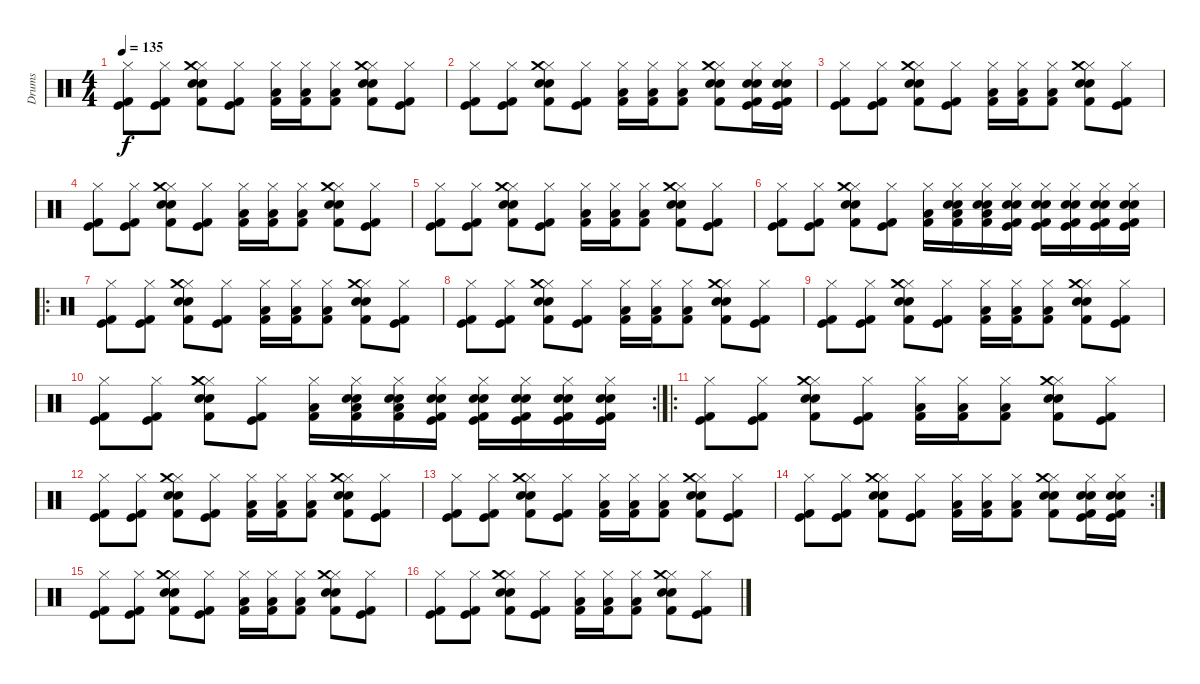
\track ("Drums" "Drums") {instrument percussion}
\staff {score}
\articulation defaults
\ts (4 4)
\tempo 135
\clef neutral
\ks c
("Hi-Hat (closed)" "Kick (hit)" "Kick (hit) 2").8{dy f} ("Hi-Hat (closed)" "Kick (hit)" "Kick (hit) 2").8 ("Hi-Hat (closed)" "Electric Snare (hit)" "Crash medium (hit)" "Snare (hit) 2" "Kick (hit) 2").8 ("Hi-Hat (closed)" "Kick (hit)" "Kick (hit) 2").8 ("Hi-Hat (closed)" "Low Floor Tom (hit)" "Kick (hit) 2").16 ("Hi-Hat (closed)" "Low Floor Tom (hit)" "Kick (hit) 2").16 ("Hi-Hat (closed)" "Low Floor Tom (hit)" "Kick (hit) 2").8 ("Hi-Hat (closed)" "Electric Snare (hit)" "Crash medium (hit)" "Snare (hit) 2" "Kick (hit) 2").8 ("Hi-Hat (closed)" "Kick (hit)" "Kick (hit) 2").8 |
("Hi-Hat (closed)" "Kick (hit)" "Kick (hit) 2").8 ("Hi-Hat (closed)" "Kick (hit)" "Kick (hit) 2").8 ("Hi-Hat (closed)" "Electric Snare (hit)" "Crash medium (hit)" "Snare (hit) 2" "Kick (hit) 2").8 ("Hi-Hat (closed)" "Kick (hit)" "Kick (hit) 2").8 ("Hi-Hat (closed)" "Low Floor Tom (hit)" "Kick (hit) 2").16 ("Hi-Hat (closed)" "Low Floor Tom (hit)" "Kick (hit) 2").16 ("Hi-Hat (closed)" "Low Floor Tom (hit)" "Kick (hit) 2").8 ("Hi-Hat (closed)" "Electric Snare (hit)" "Crash medium (hit)" "Snare (hit) 2" "Kick (hit) 2").8 ("Electric Snare (hit)" "Snare (hit) 2" "Hi-Hat (closed)" "Kick (hit)" "Kick (hit) 2").16 ("Electric Snare (hit)" "Snare (hit) 2" "Hi-Hat (closed)" "Kick (hit)" "Kick (hit) 2").16 |
("Hi-Hat (closed)" "Kick (hit)" "Kick (hit) 2").8 ("Hi-Hat (closed)" "Kick (hit)" "Kick (hit) 2").8 ("Hi-Hat (closed)" "Electric Snare (hit)" "Crash medium (hit)" "Snare (hit) 2" "Kick (hit) 2").8 ("Hi-Hat (closed)" "Kick (hit)" "Kick (hit) 2").8 ("Hi-Hat (closed)" "Low Floor Tom (hit)" "Kick (hit) 2").16 ("Hi-Hat (closed)" "Low Floor Tom (hit)" "Kick (hit) 2").16 ("Hi-Hat (closed)" "Low Floor Tom (hit)" "Kick (hit) 2").8 ("Hi-Hat (closed)" "Electric Snare (hit)" "Crash medium (hit)" "Snare (hit) 2" "Kick (hit) 2").8 ("Hi-Hat (closed)" "Kick (hit)" "Kick (hit) 2").8 |
("Hi-Hat (closed)" "Kick (hit)" "Kick (hit) 2").8 ("Hi-Hat (closed)" "Kick (hit)" "Kick (hit) 2").8 ("Hi-Hat (closed)" "Electric Snare (hit)" "Crash medium (hit)" "Snare (hit) 2" "Kick (hit) 2").8 ("Hi-Hat (closed)" "Kick (hit)" "Kick (hit) 2").8 ("Hi-Hat (closed)" "Low Floor Tom (hit)" "Kick (hit) 2").16 ("Hi-Hat (closed)" "Low Floor Tom (hit)" "Kick (hit) 2").16 ("Hi-Hat (closed)" "Low Floor Tom (hit)" "Kick (hit) 2").8 ("Hi-Hat (closed)" "Electric Snare (hit)" "Crash medium (hit)" "Snare (hit) 2" "Kick (hit) 2").8 ("Hi-Hat (closed)" "Kick (hit)" "Kick (hit) 2").8 |
("Hi-Hat (closed)" "Kick (hit)" "Kick (hit) 2").8 ("Hi-Hat (closed)" "Kick (hit)" "Kick (hit) 2").8 ("Hi-Hat (closed)" "Electric Snare (hit)" "Crash medium (hit)" "Snare (hit) 2" "Kick (hit) 2").8 ("Hi-Hat (closed)" "Kick (hit)" "Kick (hit) 2").8 ("Hi-Hat (closed)" "Low Floor Tom (hit)" "Kick (hit) 2").16 ("Hi-Hat (closed)" "Low Floor Tom (hit)" "Kick (hit) 2").16 ("Hi-Hat (closed)" "Low Floor Tom (hit)" "Kick (hit) 2").8 ("Hi-Hat (closed)" "Electric Snare (hit)" "Crash medium (hit)" "Snare (hit) 2" "Kick (hit) 2").8 ("Hi-Hat (closed)" "Kick (hit)" "Kick (hit) 2").8 |
("Hi-Hat (closed)" "Kick (hit)" "Kick (hit) 2").8 ("Hi-Hat (closed)" "Kick (hit)" "Kick (hit) 2").8 ("Hi-Hat (closed)" "Electric Snare (hit)" "Crash medium (hit)" "Snare (hit) 2" "Kick (hit) 2").8 ("Hi-Hat (closed)" "Kick (hit)" "Kick (hit) 2").8 ("Hi-Hat (closed)" "Low Floor Tom (hit)" "Kick (hit) 2").16 ("Electric Snare (hit)" "Snare (hit) 2" "Hi-Hat (closed)" "Low Floor Tom (hit)" "Kick (hit) 2").16 ("Electric Snare (hit)" "Snare (hit) 2" "Hi-Hat (closed)" "Low Floor Tom (hit)" "Kick (hit) 2").16 ("Electric Snare (hit)" "Snare (hit) 2" "Hi-Hat (closed)" "Kick (hit)" "Kick (hit) 2").16 ("Electric Snare (hit)" "Snare (hit) 2" "Hi-Hat (closed)" "Kick (hit)" "Kick (hit) 2").16 ("Electric Snare (hit)" "Snare (hit) 2" "Hi-Hat (closed)" "Kick (hit)" "Kick (hit) 2").16 ("Electric Snare (hit)" "Snare (hit) 2" "Hi-Hat (closed)" "Kick (hit)" "Kick (hit) 2").16 ("Electric Snare (hit)" "Snare (hit) 2" "Hi-Hat (closed)" "Kick (hit)" "Kick (hit) 2").16 |
\ro
("Hi-Hat (closed)" "Kick (hit)" "Kick (hit) 2").8 ("Hi-Hat (closed)" "Kick (hit)" "Kick (hit) 2").8 ("Hi-Hat (closed)" "Electric Snare (hit)" "Crash medium (hit)" "Snare (hit) 2" "Kick (hit) 2").8 ("Hi-Hat (closed)" "Kick (hit)" "Kick (hit) 2").8 ("Hi-Hat (closed)" "Low Floor Tom (hit)" "Kick (hit) 2").16 ("Hi-Hat (closed)" "Low Floor Tom (hit)" "Kick (hit) 2").16 ("Hi-Hat (closed)" "Low Floor Tom (hit)" "Kick (hit) 2").8 ("Hi-Hat (closed)" "Electric Snare (hit)" "Crash medium (hit)" "Snare (hit) 2" "Kick (hit) 2").8 ("Hi-Hat (closed)" "Kick (hit)" "Kick (hit) 2").8 |
("Hi-Hat (closed)" "Kick (hit)" "Kick (hit) 2").8 ("Hi-Hat (closed)" "Kick (hit)" "Kick (hit) 2").8 ("Hi-Hat (closed)" "Electric Snare (hit)" "Crash medium (hit)" "Snare (hit) 2" "Kick (hit) 2").8 ("Hi-Hat (closed)" "Kick (hit)" "Kick (hit) 2").8 ("Hi-Hat (closed)" "Low Floor Tom (hit)" "Kick (hit) 2").16 ("Hi-Hat (closed)" "Low Floor Tom (hit)" "Kick (hit) 2").16 ("Hi-Hat (closed)" "Low Floor Tom (hit)" "Kick (hit) 2").8 ("Hi-Hat (closed)" "Electric Snare (hit)" "Crash medium (hit)" "Snare (hit) 2" "Kick (hit) 2").8 ("Hi-Hat (closed)" "Kick (hit)" "Kick (hit) 2").8 |
("Hi-Hat (closed)" "Kick (hit)" "Kick (hit) 2").8 ("Hi-Hat (closed)" "Kick (hit)" "Kick (hit) 2").8 ("Hi-Hat (closed)" "Electric Snare (hit)" "Crash medium (hit)" "Snare (hit) 2" "Kick (hit) 2").8 ("Hi-Hat (closed)" "Kick (hit)" "Kick (hit) 2").8 ("Hi-Hat (closed)" "Low Floor Tom (hit)" "Kick (hit) 2").16 ("Hi-Hat (closed)" "Low Floor Tom (hit)" "Kick (hit) 2").16 ("Hi-Hat (closed)" "Low Floor Tom (hit)" "Kick (hit) 2").8 ("Hi-Hat (closed)" "Electric Snare (hit)" "Crash medium (hit)" "Snare (hit) 2" "Kick (hit) 2").8 ("Hi-Hat (closed)" "Kick (hit)" "Kick (hit) 2").8 |
\rc 2
("Hi-Hat (closed)" "Kick (hit)" "Kick (hit) 2").8 ("Hi-Hat (closed)" "Kick (hit)" "Kick (hit) 2").8 ("Hi-Hat (closed)" "Electric Snare (hit)" "Crash medium (hit)" "Snare (hit) 2" "Kick (hit) 2").8 ("Hi-Hat (closed)" "Kick (hit)" "Kick (hit) 2").8 ("Hi-Hat (closed)" "Low Floor Tom (hit)" "Kick (hit) 2").16 ("Electric Snare (hit)" "Snare (hit) 2" "Hi-Hat (closed)" "Low Floor Tom (hit)" "Kick (hit) 2").16 ("Electric Snare (hit)" "Snare (hit) 2" "Hi-Hat (closed)" "Low Floor Tom (hit)" "Kick (hit) 2").16 ("Electric Snare (hit)" "Snare (hit) 2" "Hi-Hat (closed)" "Kick (hit)" "Kick (hit) 2").16 ("Electric Snare (hit)" "Snare (hit) 2" "Hi-Hat (closed)" "Kick (hit)" "Kick (hit) 2").16 ("Electric Snare (hit)" "Snare (hit) 2" "Hi-Hat (closed)" "Kick (hit)" "Kick (hit) 2").16 ("Electric Snare (hit)" "Snare (hit) 2" "Hi-Hat (closed)" "Kick (hit)" "Kick (hit) 2").16 ("Electric Snare (hit)" "Snare (hit) 2" "Hi-Hat (closed)" "Kick (hit)" "Kick (hit) 2").16 |
\ro
("Hi-Hat (closed)" "Kick (hit)" "Kick (hit) 2").8 ("Hi-Hat (closed)" "Kick (hit)" "Kick (hit) 2").8 ("Hi-Hat (closed)" "Electric Snare (hit)" "Crash medium (hit)" "Snare (hit) 2" "Kick (hit) 2").8 ("Hi-Hat (closed)" "Kick (hit)" "Kick (hit) 2").8 ("Hi-Hat (closed)" "Low Floor Tom (hit)" "Kick (hit) 2").16 ("Hi-Hat (closed)" "Low Floor Tom (hit)" "Kick (hit) 2").16 ("Hi-Hat (closed)" "Low Floor Tom (hit)" "Kick (hit) 2").8 ("Hi-Hat (closed)" "Electric Snare (hit)" "Crash medium (hit)" "Snare (hit) 2" "Kick (hit) 2").8 ("Hi-Hat (closed)" "Kick (hit)" "Kick (hit) 2").8 |
("Hi-Hat (closed)" "Kick (hit)" "Kick (hit) 2").8 ("Hi-Hat (closed)" "Kick (hit)" "Kick (hit) 2").8 ("Hi-Hat (closed)" "Electric Snare (hit)" "Crash medium (hit)" "Snare (hit) 2" "Kick (hit) 2").8 ("Hi-Hat (closed)" "Kick (hit)" "Kick (hit) 2").8 ("Hi-Hat (closed)" "Low Floor Tom (hit)" "Kick (hit) 2").16 ("Hi-Hat (closed)" "Low Floor Tom (hit)" "Kick (hit) 2").16 ("Hi-Hat (closed)" "Low Floor Tom (hit)" "Kick (hit) 2").8 ("Hi-Hat (closed)" "Electric Snare (hit)" "Crash medium (hit)" "Snare (hit) 2" "Kick (hit) 2").8 ("Hi-Hat (closed)" "Kick (hit)" "Kick (hit) 2").8 |
("Hi-Hat (closed)" "Kick (hit)" "Kick (hit) 2").8 ("Hi-Hat (closed)" "Kick (hit)" "Kick (hit) 2").8 ("Hi-Hat (closed)" "Electric Snare (hit)" "Crash medium (hit)" "Snare (hit) 2" "Kick (hit) 2").8 ("Hi-Hat (closed)" "Kick (hit)" "Kick (hit) 2").8 ("Hi-Hat (closed)" "Low Floor Tom (hit)" "Kick (hit) 2").16 ("Hi-Hat (closed)" "Low Floor Tom (hit)" "Kick (hit) 2").16 ("Hi-Hat (closed)" "Low Floor Tom (hit)" "Kick (hit) 2").8 ("Hi-Hat (closed)" "Electric Snare (hit)" "Crash medium (hit)" "Snare (hit) 2" "Kick (hit) 2").8 ("Hi-Hat (closed)" "Kick (hit)" "Kick (hit) 2").8 |
\rc 2
("Hi-Hat (closed)" "Kick (hit)" "Kick (hit) 2").8 ("Hi-Hat (closed)" "Kick (hit)" "Kick (hit) 2").8 ("Hi-Hat (closed)" "Electric Snare (hit)" "Crash medium (hit)" "Snare (hit) 2" "Kick (hit) 2").8 ("Hi-Hat (closed)" "Kick (hit)" "Kick (hit) 2").8 ("Hi-Hat (closed)" "Low Floor Tom (hit)" "Kick (hit) 2").16 ("Hi-Hat (closed)" "Low Floor Tom (hit)" "Kick (hit) 2").16 ("Hi-Hat (closed)" "Low Floor Tom (hit)" "Kick (hit) 2").8 ("Hi-Hat (closed)" "Electric Snare (hit)" "Crash medium (hit)" "Snare (hit) 2" "Kick (hit) 2").8 ("Electric Snare (hit)" "Snare (hit) 2" "Hi-Hat (closed)" "Kick (hit)" "Kick (hit) 2").16 ("Electric Snare (hit)" "Snare (hit) 2" "Hi-Hat (closed)" "Kick (hit)" "Kick (hit) 2").16 |
("Hi-Hat (closed)" "Kick (hit)" "Kick (hit) 2").8 ("Hi-Hat (closed)" "Kick (hit)" "Kick (hit) 2").8 ("Hi-Hat (closed)" "Electric Snare (hit)" "Crash medium (hit)" "Snare (hit) 2" "Kick (hit) 2").8 ("Hi-Hat (closed)" "Kick (hit)" "Kick (hit) 2").8 ("Hi-Hat (closed)" "Low Floor Tom (hit)" "Kick (hit) 2").16 ("Hi-Hat (closed)" "Low Floor Tom (hit)" "Kick (hit) 2").16 ("Hi-Hat (closed)" "Low Floor Tom (hit)" "Kick (hit) 2").8 ("Hi-Hat (closed)" "Electric Snare (hit)" "Crash medium (hit)" "Snare (hit) 2" "Kick (hit) 2").8 ("Hi-Hat (closed)" "Kick (hit)" "Kick (hit) 2").8 |
("Hi-Hat (closed)" "Kick (hit)" "Kick (hit) 2").8 ("Hi-Hat (closed)" "Kick (hit)" "Kick (hit) 2").8 ("Hi-Hat (closed)" "Electric Snare (hit)" "Crash medium (hit)" "Snare (hit) 2" "Kick (hit) 2").8 ("Hi-Hat (closed)" "Kick (hit)" "Kick (hit) 2").8 ("Hi-Hat (closed)" "Low Floor Tom (hit)" "Kick (hit) 2").16 ("Hi-Hat (closed)" "Low Floor Tom (hit)" "Kick (hit) 2").16 ("Hi-Hat (closed)" "Low Floor Tom (hit)" "Kick (hit) 2").8 ("Hi-Hat (closed)" "Electric Snare (hit)" "Crash medium (hit)" "Snare (hit) 2" "Kick (hit) 2").8 ("Hi-Hat (closed)" "Kick (hit)" "Kick (hit) 2").8
